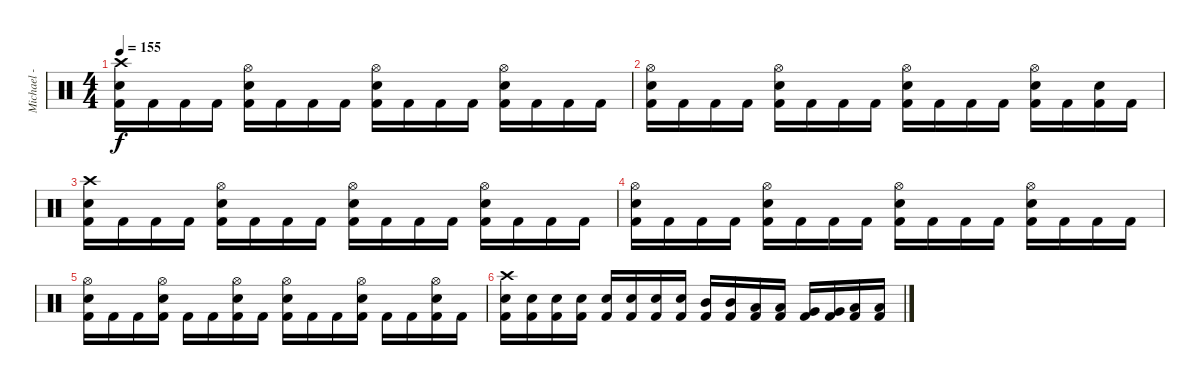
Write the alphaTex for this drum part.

\track ("Michael - Drums" "Michael - ") {instrument percussion}
\staff {score}
\articulation defaults
\ts (4 4)
\tempo 155
\clef neutral
\ks c
("Crash high (hit)" "Electric Snare (hit)" "Kick (hit) 2").16{dy f} "Kick (hit) 2".16 "Kick (hit) 2".16 "Kick (hit) 2".16 ("Hi-Hat (open)" "Electric Snare (hit)" "Kick (hit) 2").16 "Kick (hit) 2".16 "Kick (hit) 2".16 "Kick (hit) 2".16 ("Hi-Hat (open)" "Electric Snare (hit)" "Kick (hit) 2").16 "Kick (hit) 2".16 "Kick (hit) 2".16 "Kick (hit) 2".16 ("Hi-Hat (open)" "Electric Snare (hit)" "Kick (hit) 2").16 "Kick (hit) 2".16 "Kick (hit) 2".16 "Kick (hit) 2".16 |
("Hi-Hat (open)" "Electric Snare (hit)" "Kick (hit) 2").16 "Kick (hit) 2".16 "Kick (hit) 2".16 "Kick (hit) 2".16 ("Hi-Hat (open)" "Electric Snare (hit)" "Kick (hit) 2").16 "Kick (hit) 2".16 "Kick (hit) 2".16 "Kick (hit) 2".16 ("Hi-Hat (open)" "Electric Snare (hit)" "Kick (hit) 2").16 "Kick (hit) 2".16 "Kick (hit) 2".16 "Kick (hit) 2".16 ("Hi-Hat (open)" "Electric Snare (hit)" "Kick (hit) 2").16 "Kick (hit) 2".16 ("Electric Snare (hit)" "Kick (hit) 2").16 "Kick (hit) 2".16 |
("Crash high (hit)" "Electric Snare (hit)" "Kick (hit) 2").16 "Kick (hit) 2".16 "Kick (hit) 2".16 "Kick (hit) 2".16 ("Hi-Hat (open)" "Electric Snare (hit)" "Kick (hit) 2").16 "Kick (hit) 2".16 "Kick (hit) 2".16 "Kick (hit) 2".16 ("Hi-Hat (open)" "Electric Snare (hit)" "Kick (hit) 2").16 "Kick (hit) 2".16 "Kick (hit) 2".16 "Kick (hit) 2".16 ("Hi-Hat (open)" "Electric Snare (hit)" "Kick (hit) 2").16 "Kick (hit) 2".16 "Kick (hit) 2".16 "Kick (hit) 2".16 |
("Hi-Hat (open)" "Electric Snare (hit)" "Kick (hit) 2").16 "Kick (hit) 2".16 "Kick (hit) 2".16 "Kick (hit) 2".16 ("Hi-Hat (open)" "Electric Snare (hit)" "Kick (hit) 2").16 "Kick (hit) 2".16 "Kick (hit) 2".16 "Kick (hit) 2".16 ("Hi-Hat (open)" "Electric Snare (hit)" "Kick (hit) 2").16 "Kick (hit) 2".16 "Kick (hit) 2".16 "Kick (hit) 2".16 ("Hi-Hat (open)" "Electric Snare (hit)" "Kick (hit) 2").16 "Kick (hit) 2".16 "Kick (hit) 2".16 "Kick (hit) 2".16 |
("Hi-Hat (open)" "Electric Snare (hit)" "Kick (hit) 2").16 "Kick (hit) 2".16 "Kick (hit) 2".16 ("Hi-Hat (open)" "Electric Snare (hit)" "Kick (hit) 2").16 "Kick (hit) 2".16 "Kick (hit) 2".16 ("Hi-Hat (open)" "Electric Snare (hit)" "Kick (hit) 2").16 "Kick (hit) 2".16 ("Hi-Hat (open)" "Electric Snare (hit)" "Kick (hit) 2").16 "Kick (hit) 2".16 "Kick (hit) 2".16 ("Hi-Hat (open)" "Electric Snare (hit)" "Kick (hit) 2").16 "Kick (hit) 2".16 "Kick (hit) 2".16 ("Hi-Hat (open)" "Electric Snare (hit)" "Kick (hit) 2").16 "Kick (hit) 2".16 |
("Crash high (hit)" "Electric Snare (hit)" "Kick (hit) 2").16 ("Electric Snare (hit)" "Kick (hit) 2").16 ("Electric Snare (hit)" "Kick (hit) 2").16 ("Electric Snare (hit)" "Kick (hit) 2").16 ("Electric Snare (hit)" "Kick (hit) 2").16 ("Electric Snare (hit)" "Kick (hit) 2").16 ("Electric Snare (hit)" "Kick (hit) 2").16 ("Electric Snare (hit)" "Kick (hit) 2").16 ("Mid Tom (hit)" "Kick (hit) 2").16 ("Mid Tom (hit)" "Kick (hit) 2").16 ("Low Tom (hit)" "Kick (hit) 2").16 ("Low Tom (hit)" "Kick (hit) 2").16 ("Very Low Tom (hit)" "Kick (hit) 2").16 ("Very Low Tom (hit)" "Kick (hit) 2").16 ("Low Floor Tom (hit)" "Kick (hit) 2").16 ("Low Floor Tom (hit)" "Kick (hit) 2").16
